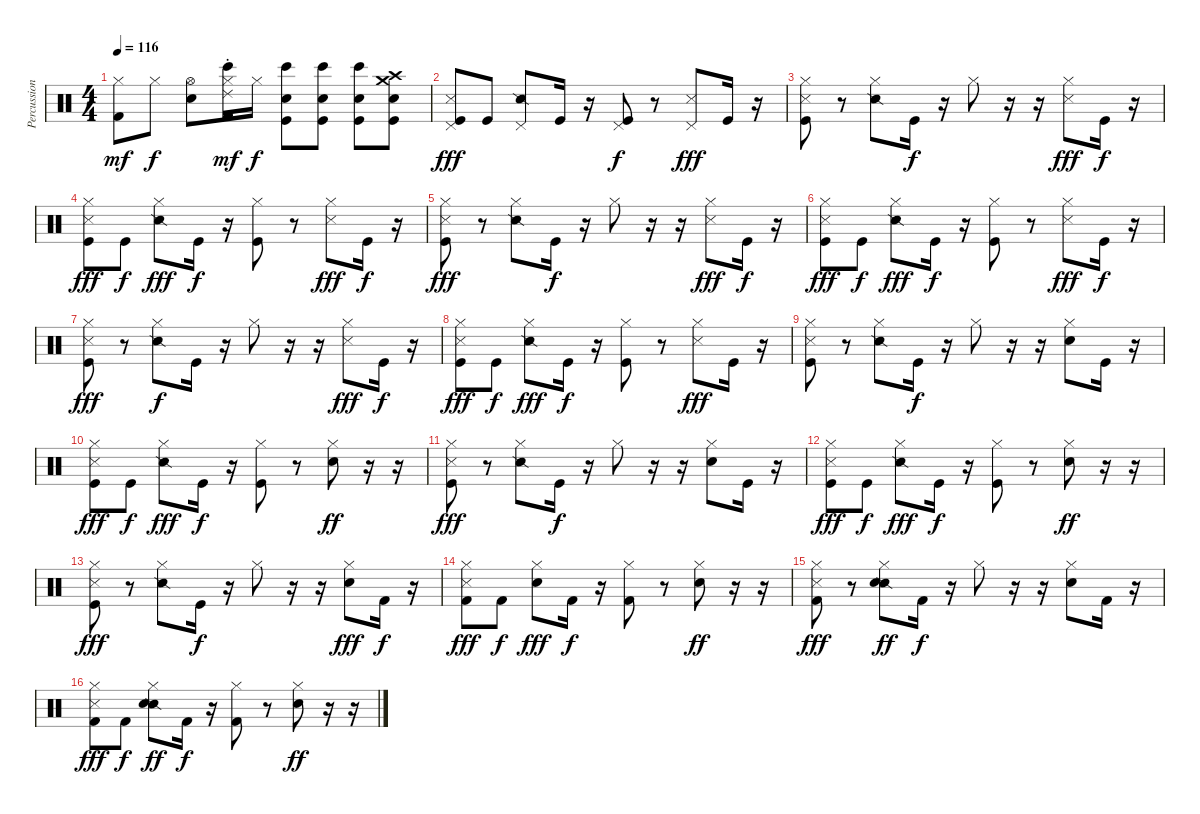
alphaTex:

\track ("Percussion" "Percussion") {instrument percussion}
\staff {score}
\articulation defaults
\ts (4 4)
\tempo 116
\clef neutral
\ks c
("Hi-Hat (closed)" "Kick (hit) 2").8{dy mf} "Hi-Hat (closed)".8{dy f} ("Hi-Hat (open)" "Electric Snare (hit)").8 ("Hi-Hat (closed)" "Kick (hit) 2" "Ride (choke) 2" "Bongo High (hit)").16{dy mf} "Hi-Hat (closed)".16{dy f} ("Kick (hit)" "Snare (hit) 2" "Bongo High (hit)").8 ("Kick (hit)" "Snare (hit) 2" "Bongo High (hit)").8 ("Kick (hit)" "Electric Snare (hit)" "Bongo High (hit)").8 ("Kick (hit)" "Hand Clap (hit)" "Crash medium (hit)" "Crash high (hit)").8 |
("Pedal Hi-Hat (hit)" "Kick (hit)" "Snare (side stick) 3").8{dy fff} "Kick (hit)".8 ("Pedal Hi-Hat (hit)" "Snare (side stick) 2").8 "Kick (hit)".16 r.16 ("Pedal Hi-Hat (hit)" "Kick (hit)").8{dy f} r.8 ("Pedal Hi-Hat (hit)" "Snare (side stick) 3").8{dy fff} "Kick (hit)".16 r.16 |
("Hi-Hat (closed)" "Kick (hit)" "Metronome (hit)").8 r.8 ("Hi-Hat (closed)" "Snare (side stick) 2").8 "Kick (hit)".16{dy f} r.16 "Hi-Hat (closed)".8 r.16 r.16 ("Hi-Hat (closed)" "Snare (side stick) 3").8{dy fff} "Kick (hit)".16{dy f} r.16 |
("Hi-Hat (closed)" "Kick (hit)" "Snare (side stick) 3").8{dy fff} "Kick (hit)".8{dy f} ("Hi-Hat (closed)" "Snare (side stick) 2").8{dy fff} "Kick (hit)".16{dy f} r.16 ("Hi-Hat (closed)" "Kick (hit)").8 r.8 ("Hi-Hat (closed)" "Snare (side stick) 3").8{dy fff} "Kick (hit)".16{dy f} r.16 |
("Hi-Hat (closed)" "Kick (hit)" "Snare (side stick) 3").8{dy fff} r.8 ("Hi-Hat (closed)" "Snare (side stick) 2").8 "Kick (hit)".16{dy f} r.16 "Hi-Hat (closed)".8 r.16 r.16 ("Hi-Hat (closed)" "Snare (side stick) 3").8{dy fff} "Kick (hit)".16{dy f} r.16 |
("Hi-Hat (closed)" "Kick (hit)" "Snare (side stick) 3").8{dy fff} "Kick (hit)".8{dy f} ("Hi-Hat (closed)" "Snare (side stick) 2").8{dy fff} "Kick (hit)".16{dy f} r.16 ("Hi-Hat (closed)" "Kick (hit)").8 r.8 ("Hi-Hat (closed)" "Snare (side stick) 3").8{dy fff} "Kick (hit)".16{dy f} r.16 |
("Hi-Hat (closed)" "Kick (hit)" "Snare (side stick) 3").8{dy fff} r.8 ("Hi-Hat (closed)" "Snare (side stick) 2").8{dy f} "Kick (hit)".16 r.16 "Hi-Hat (closed)".8 r.16 r.16 ("Hi-Hat (closed)" "Snare (side stick) 3").8{dy fff} "Kick (hit)".16{dy f} r.16 |
("Hi-Hat (closed)" "Kick (hit)" "Snare (side stick) 3").8{dy fff} "Kick (hit)".8{dy f} ("Hi-Hat (closed)" "Snare (side stick) 2").8{dy fff} "Kick (hit)".16{dy f} r.16 ("Hi-Hat (closed)" "Kick (hit)").8 r.8 ("Hi-Hat (closed)" "Snare (side stick) 3").8{dy fff} "Kick (hit)".16 r.16 |
("Hi-Hat (closed)" "Kick (hit)" "Snare (side stick) 3").8 r.8 ("Hi-Hat (closed)" "Snare (side stick) 2").8 "Kick (hit)".16{dy f} r.16 "Hi-Hat (closed)".8 r.16 r.16 ("Hi-Hat (closed)" "Electric Snare (hit)").8 "Kick (hit)".16 r.16 |
("Hi-Hat (closed)" "Kick (hit)" "Snare (side stick) 3").8{dy fff} "Kick (hit)".8{dy f} ("Hi-Hat (closed)" "Snare (side stick) 2").8{dy fff} "Kick (hit)".16{dy f} r.16 ("Hi-Hat (closed)" "Kick (hit)").8 r.8 ("Hi-Hat (closed)" "Electric Snare (hit)").8{dy ff} r.16 r.16 |
("Hi-Hat (closed)" "Kick (hit)" "Snare (side stick) 3").8{dy fff} r.8 ("Hi-Hat (closed)" "Snare (side stick) 2").8 "Kick (hit)".16{dy f} r.16 "Hi-Hat (closed)".8 r.16 r.16 ("Hi-Hat (closed)" "Electric Snare (hit)").8 "Kick (hit)".16 r.16 |
("Hi-Hat (closed)" "Kick (hit)" "Snare (side stick) 3").8{dy fff} "Kick (hit)".8{dy f} ("Hi-Hat (closed)" "Snare (side stick) 2").8{dy fff} "Kick (hit)".16{dy f} r.16 ("Hi-Hat (closed)" "Kick (hit)").8 r.8 ("Hi-Hat (closed)" "Electric Snare (hit)").8{dy ff} r.16 r.16 |
("Hi-Hat (closed)" "Kick (hit)" "Snare (side stick) 3").8{dy fff} r.8 ("Hi-Hat (closed)" "Snare (side stick) 2").8 "Kick (hit)".16{dy f} r.16 "Hi-Hat (closed)".8 r.16 r.16 ("Hi-Hat (closed)" "Electric Snare (hit)").8{dy fff} "Kick (hit) 2".16{dy f} r.16 |
("Hi-Hat (closed)" "Kick (hit) 2" "Snare (side stick) 3").8{dy fff} "Kick (hit) 2".8{dy f} ("Hi-Hat (closed)" "Electric Snare (hit)").8{dy fff} "Kick (hit) 2".16{dy f} r.16 ("Hi-Hat (closed)" "Kick (hit) 2").8 r.8 ("Hi-Hat (closed)" "Electric Snare (hit)").8{dy ff} r.16 r.16 |
("Hi-Hat (closed)" "Kick (hit) 2" "Snare (side stick) 3").8{dy fff} r.8 ("Hi-Hat (closed)" "Snare (side stick) 2" "Electric Snare (hit)").8{dy ff} "Kick (hit) 2".16{dy f} r.16 "Hi-Hat (closed)".8 r.16 r.16 ("Hi-Hat (closed)" "Electric Snare (hit)").8 "Kick (hit) 2".16 r.16 |
("Hi-Hat (closed)" "Kick (hit) 2" "Snare (side stick) 3").8{dy fff} "Kick (hit) 2".8{dy f} ("Hi-Hat (closed)" "Snare (side stick) 2" "Electric Snare (hit)").8{dy ff} "Kick (hit) 2".16{dy f} r.16 ("Hi-Hat (closed)" "Kick (hit) 2").8 r.8 ("Hi-Hat (closed)" "Electric Snare (hit)").8{dy ff} r.16 r.16
